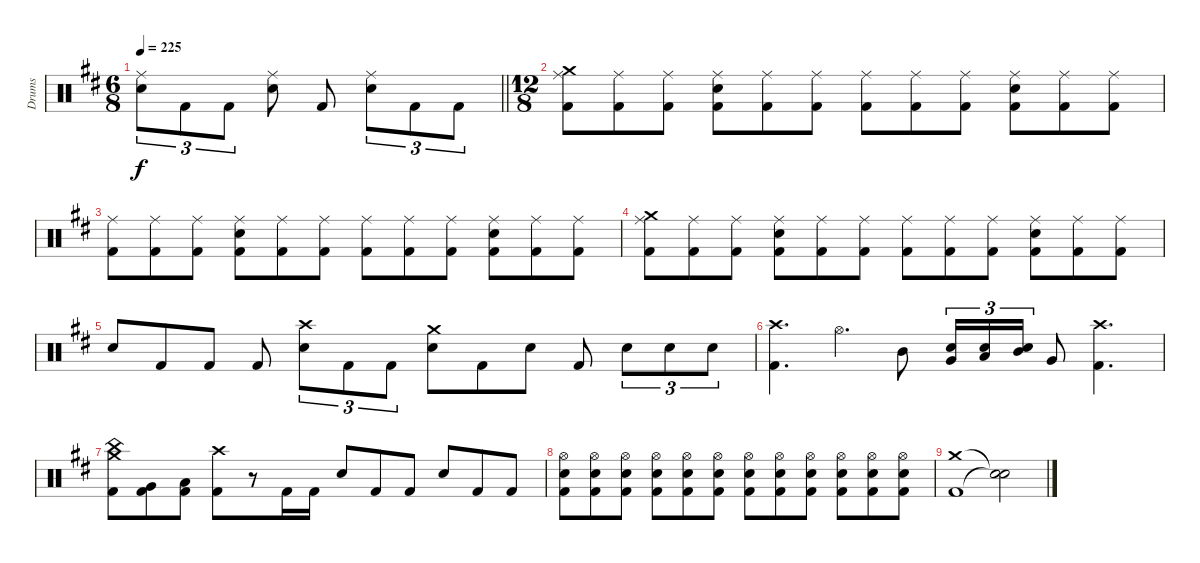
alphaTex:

\track ("Drums" "Drums") {instrument percussion}
\staff {score}
\articulation defaults
\ts (6 8)
\tempo 225
\clef neutral
\barLineRight lightlight
\ks d
("Ride (middle)" "Electric Snare (hit)").8{tu (3 2) dy f} "Kick (hit) 2".8{tu (3 2)} "Kick (hit) 2".8{tu (3 2)} ("Ride (middle)" "Electric Snare (hit)").8 "Kick (hit) 2".8 ("Ride (middle)" "Electric Snare (hit)").8{tu (3 2)} "Kick (hit) 2".8{tu (3 2)} "Kick (hit) 2".8{tu (3 2)} |
\ts (12 8)
("Crash medium (hit)" "Ride (middle)" "Kick (hit) 2").8 ("Ride (middle)" "Kick (hit) 2").8 ("Ride (middle)" "Kick (hit) 2").8 ("Ride (middle)" "Electric Snare (hit)" "Kick (hit) 2").8 ("Ride (middle)" "Kick (hit) 2").8 ("Ride (middle)" "Kick (hit) 2").8 ("Ride (middle)" "Kick (hit) 2").8 ("Ride (middle)" "Kick (hit) 2").8 ("Ride (middle)" "Kick (hit) 2").8 ("Ride (middle)" "Electric Snare (hit)" "Kick (hit) 2").8 ("Ride (middle)" "Kick (hit) 2").8 ("Ride (middle)" "Kick (hit) 2").8 |
("Ride (middle)" "Kick (hit) 2").8 ("Ride (middle)" "Kick (hit) 2").8 ("Ride (middle)" "Kick (hit) 2").8 ("Ride (middle)" "Electric Snare (hit)" "Kick (hit) 2").8 ("Ride (middle)" "Kick (hit) 2").8 ("Ride (middle)" "Kick (hit) 2").8 ("Ride (middle)" "Kick (hit) 2").8 ("Ride (middle)" "Kick (hit) 2").8 ("Ride (middle)" "Kick (hit) 2").8 ("Ride (middle)" "Electric Snare (hit)" "Kick (hit) 2").8 ("Ride (middle)" "Kick (hit) 2").8 ("Ride (middle)" "Kick (hit) 2").8 |
("Crash medium (hit)" "Ride (middle)" "Kick (hit) 2").8 ("Ride (middle)" "Kick (hit) 2").8 ("Ride (middle)" "Kick (hit) 2").8 ("Ride (middle)" "Electric Snare (hit)" "Kick (hit) 2").8 ("Ride (middle)" "Kick (hit) 2").8 ("Ride (middle)" "Kick (hit) 2").8 ("Ride (middle)" "Kick (hit) 2").8 ("Ride (middle)" "Kick (hit) 2").8 ("Ride (middle)" "Kick (hit) 2").8 ("Ride (middle)" "Electric Snare (hit)" "Kick (hit) 2").8 ("Ride (middle)" "Kick (hit) 2").8 ("Ride (middle)" "Kick (hit) 2").8 |
"Electric Snare (hit)".8 "Kick (hit) 2".8 "Kick (hit) 2".8 "Kick (hit) 2".8 ("Crash high (hit)" "Electric Snare (hit)").8{tu (3 2)} "Kick (hit) 2".8{tu (3 2)} "Kick (hit) 2".8{tu (3 2)} ("Crash medium (hit)" "Electric Snare (hit)").8 "Kick (hit) 2".8 "Electric Snare (hit)".8 "Kick (hit) 2".8 "Electric Snare (hit)".8{tu (3 2)} "Electric Snare (hit)".8{tu (3 2)} "Electric Snare (hit)".8{tu (3 2)} |
("Crash high (hit)" "Kick (hit) 2").4{d} "Hi-Hat (open)".4{d} "Mid Tom (hit)".8 ("Very Low Tom (hit)" "Electric Snare (hit)").16{tu (3 2)} ("Low Tom (hit)" "Electric Snare (hit)").16{tu (3 2)} ("Mid Tom (hit)" "Electric Snare (hit)").16{tu (3 2)} "Very Low Tom (hit)".8 ("Crash high (hit)" "Kick (hit) 2").4{d} |
("Crash medium (hit)" "China (hit)" "Kick (hit) 2").8 ("Very Low Tom (hit)" "Kick (hit) 2").8 ("Low Floor Tom (hit)" "Kick (hit) 2").8 ("Crash high (hit)" "Kick (hit) 2").8 r.8 "Kick (hit) 2".16 "Kick (hit) 2".16 "Electric Snare (hit)".8 "Kick (hit) 2".8 "Kick (hit) 2".8 "Electric Snare (hit)".8 "Kick (hit) 2".8 "Kick (hit) 2".8 |
("Electric Snare (hit)" "Hi-Hat (open)" "Kick (hit) 2").8 ("Electric Snare (hit)" "Hi-Hat (open)" "Kick (hit) 2").8 ("Electric Snare (hit)" "Hi-Hat (open)" "Kick (hit) 2").8 ("Electric Snare (hit)" "Hi-Hat (open)" "Kick (hit) 2").8 ("Electric Snare (hit)" "Hi-Hat (open)" "Kick (hit) 2").8 ("Electric Snare (hit)" "Hi-Hat (open)" "Kick (hit) 2").8 ("Electric Snare (hit)" "Hi-Hat (open)" "Kick (hit) 2").8 ("Electric Snare (hit)" "Hi-Hat (open)" "Kick (hit) 2").8 ("Electric Snare (hit)" "Hi-Hat (open)" "Kick (hit) 2").8 ("Electric Snare (hit)" "Hi-Hat (open)" "Kick (hit) 2").8 ("Electric Snare (hit)" "Hi-Hat (open)" "Kick (hit) 2").8 ("Electric Snare (hit)" "Hi-Hat (open)" "Kick (hit) 2").8 |
("Crash medium (hit)" "Kick (hit) 2").1 ("Snare (hit)"{t} "Snare (hit)"{t}).2
